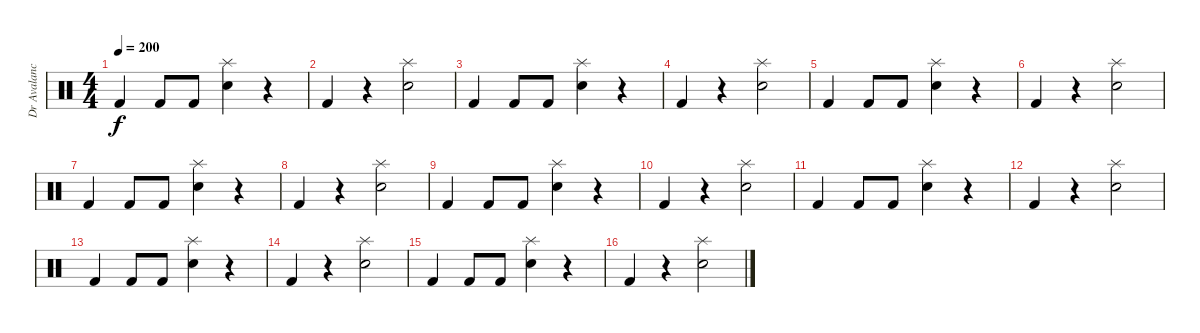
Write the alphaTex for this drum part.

\track ("Dr Avalanche" "Dr Avalanc") {instrument percussion}
\staff {score}
\articulation defaults
\ts (4 4)
\tempo 200
\clef neutral
\ks c "Kick (hit) 2".4{dy f} "Kick (hit) 2".8 "Kick (hit) 2".8
("Snare (hit) 2" "Splash (hit)").4 r.4 |
"Kick (hit) 2".4 r.4 ("Snare (hit) 2" "Splash (hit)").2 |
"Kick (hit) 2".4 "Kick (hit) 2".8 "Kick (hit) 2".8 ("Snare (hit) 2" "Splash (hit)").4 r.4 |
"Kick (hit) 2".4 r.4 ("Snare (hit) 2" "Splash (hit)").2 |
"Kick (hit) 2".4 "Kick (hit) 2".8 "Kick (hit) 2".8 ("Snare (hit) 2" "Splash (hit)").4 r.4 |
"Kick (hit) 2".4 r.4 ("Snare (hit) 2" "Splash (hit)").2 |
"Kick (hit) 2".4 "Kick (hit) 2".8 "Kick (hit) 2".8 ("Snare (hit) 2" "Splash (hit)").4 r.4 |
"Kick (hit) 2".4 r.4 ("Snare (hit) 2" "Splash (hit)").2 |
"Kick (hit) 2".4 "Kick (hit) 2".8 "Kick (hit) 2".8 ("Snare (hit) 2" "Splash (hit)").4 r.4 |
"Kick (hit) 2".4 r.4 ("Snare (hit) 2" "Splash (hit)").2 |
"Kick (hit) 2".4 "Kick (hit) 2".8 "Kick (hit) 2".8 ("Snare (hit) 2" "Splash (hit)").4 r.4 |
"Kick (hit) 2".4 r.4 ("Snare (hit) 2" "Splash (hit)").2 |
"Kick (hit) 2".4 "Kick (hit) 2".8 "Kick (hit) 2".8 ("Snare (hit) 2" "Splash (hit)").4 r.4 |
"Kick (hit) 2".4 r.4 ("Snare (hit) 2" "Splash (hit)").2 |
"Kick (hit) 2".4 "Kick (hit) 2".8 "Kick (hit) 2".8 ("Snare (hit) 2" "Splash (hit)").4 r.4 |
"Kick (hit) 2".4 r.4 ("Snare (hit) 2" "Splash (hit)").2
